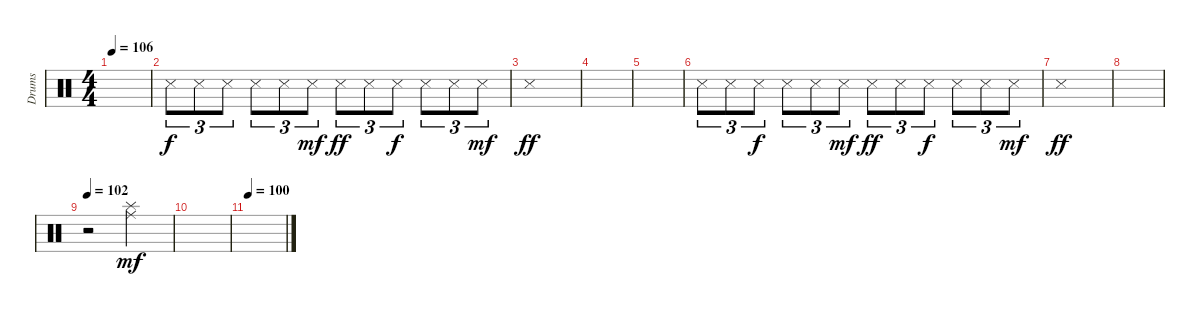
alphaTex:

\track ("Drums" "Drums") {instrument percussion}
\staff {score}
\articulation defaults
\ts (4 4)
\tempo 106
\clef neutral
\ks c
|
"Snare (side stick) 3".8{tu (3 2)} "Snare (side stick) 3".8{tu (3 2)} "Snare (side stick) 3".8{tu (3 2) dy f} "Snare (side stick) 3".8{tu (3 2)} "Snare (side stick) 3".8{tu (3 2)} "Snare (side stick) 3".8{tu (3 2) dy mf} "Snare (side stick) 3".8{tu (3 2) dy ff} "Snare (side stick) 3".8{tu (3 2)} "Snare (side stick) 3".8{tu (3 2) dy f} "Snare (side stick) 3".8{tu (3 2)} "Snare (side stick) 3".8{tu (3 2)} "Snare (side stick) 3".8{tu (3 2) dy mf} |
"Snare (side stick) 3".1{dy ff} |
|
|
"Snare (side stick) 3".8{tu (3 2)} "Snare (side stick) 3".8{tu (3 2)} "Snare (side stick) 3".8{tu (3 2) dy f} "Snare (side stick) 3".8{tu (3 2)} "Snare (side stick) 3".8{tu (3 2)} "Snare (side stick) 3".8{tu (3 2) dy mf} "Snare (side stick) 3".8{tu (3 2) dy ff} "Snare (side stick) 3".8{tu (3 2)} "Snare (side stick) 3".8{tu (3 2) dy f} "Snare (side stick) 3".8{tu (3 2)} "Snare (side stick) 3".8{tu (3 2)} "Snare (side stick) 3".8{tu (3 2) dy mf} |
"Snare (side stick) 3".1{dy ff} |
|
\tempo 102
r.2 ("Ride (middle)" "Splash (hit)").2{dy mf} |
|
\tempo 100
